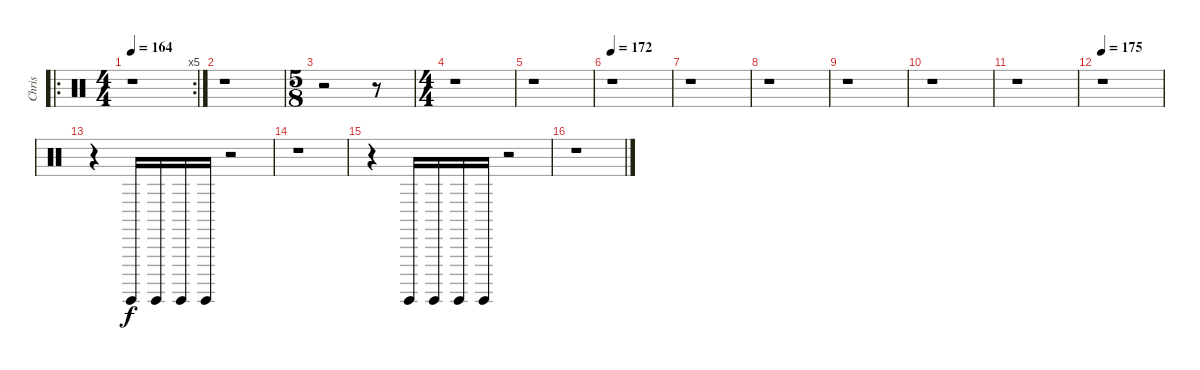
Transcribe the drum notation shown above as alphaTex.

\track ("Chris" "Chris") {instrument percussion}
\staff {score}
\articulation defaults
\ro
\rc 5
\ts (4 4)
\tempo 164
\clef neutral
\ks c
r.1{dy f} |
r.1 |
\ts (5 8)
r.2 r.8 |
\ts (4 4)
r.1 |
r.1 |
\tempo 172
r.1 |
r.1 |
r.1 |
r.1 |
r.1 |
r.1 |
\tempo 175
r.1 |
r.4 "Surdo (hit)".16 "Surdo (hit)".16 "Surdo (hit)".16 "Surdo (hit)".16 r.2 |
r.1 |
r.4 "Surdo (hit)".16 "Surdo (hit)".16 "Surdo (hit)".16 "Surdo (hit)".16 r.2 |
r.1
